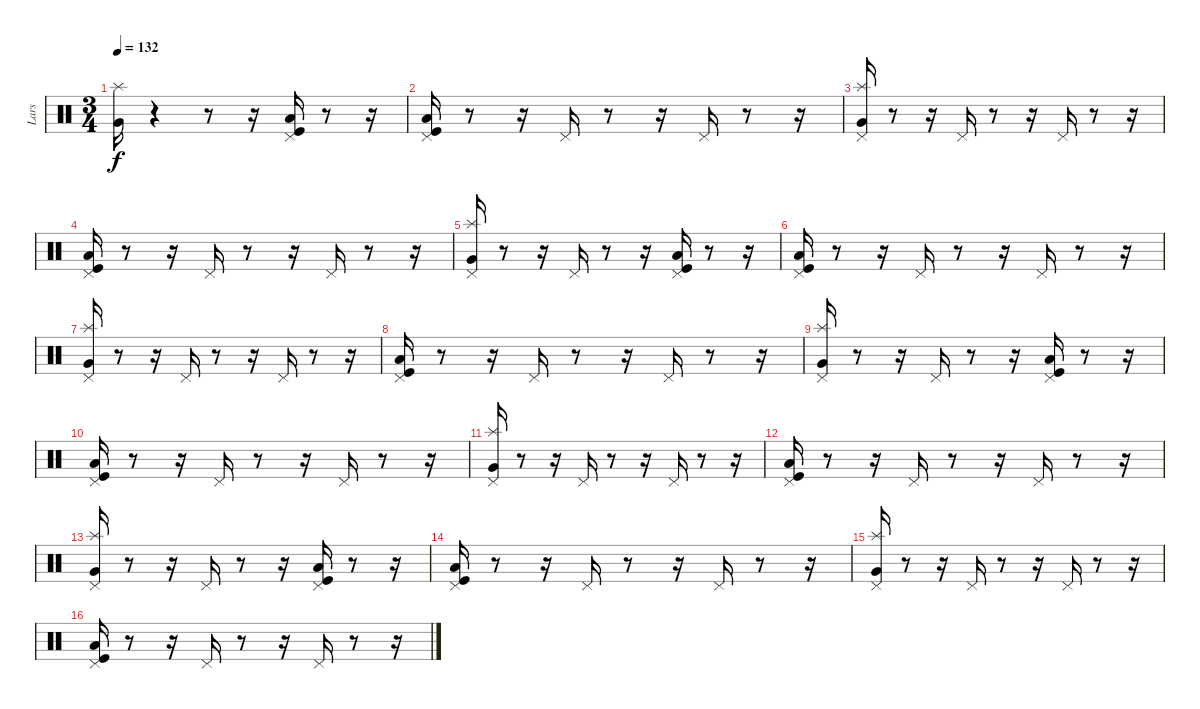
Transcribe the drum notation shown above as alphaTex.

\track ("Lars" "Lars") {instrument percussion}
\staff {score}
\articulation defaults
\ts (3 4)
\tempo 132
\clef neutral
\ks c
("Very Low Tom (hit)" "Splash (hit)").16{dy f} r.4 r.8 r.16 ("Low Floor Tom (hit)" "Pedal Hi-Hat (hit)" "Kick (hit)").16 r.8 r.16 |
("Low Floor Tom (hit)" "Pedal Hi-Hat (hit)" "Kick (hit)").16 r.8 r.16 "Pedal Hi-Hat (hit)".16 r.8 r.16 "Pedal Hi-Hat (hit)".16 r.8 r.16 |
("Pedal Hi-Hat (hit)" "Very Low Tom (hit)" "Splash (hit)").16 r.8 r.16 "Pedal Hi-Hat (hit)".16 r.8 r.16 "Pedal Hi-Hat (hit)".16 r.8 r.16 |
("Low Floor Tom (hit)" "Pedal Hi-Hat (hit)" "Kick (hit)").16 r.8 r.16 "Pedal Hi-Hat (hit)".16 r.8 r.16 "Pedal Hi-Hat (hit)".16 r.8 r.16 |
("Pedal Hi-Hat (hit)" "Very Low Tom (hit)" "Splash (hit)").16 r.8 r.16 "Pedal Hi-Hat (hit)".16 r.8 r.16 ("Pedal Hi-Hat (hit)" "Low Floor Tom (hit)" "Kick (hit)").16 r.8 r.16 |
("Low Floor Tom (hit)" "Pedal Hi-Hat (hit)" "Kick (hit)").16 r.8 r.16 "Pedal Hi-Hat (hit)".16 r.8 r.16 "Pedal Hi-Hat (hit)".16 r.8 r.16 |
("Pedal Hi-Hat (hit)" "Very Low Tom (hit)" "Splash (hit)").16 r.8 r.16 "Pedal Hi-Hat (hit)".16 r.8 r.16 "Pedal Hi-Hat (hit)".16 r.8 r.16 |
("Low Floor Tom (hit)" "Pedal Hi-Hat (hit)" "Kick (hit)").16 r.8 r.16 "Pedal Hi-Hat (hit)".16 r.8 r.16 "Pedal Hi-Hat (hit)".16 r.8 r.16 |
("Pedal Hi-Hat (hit)" "Very Low Tom (hit)" "Splash (hit)").16 r.8 r.16 "Pedal Hi-Hat (hit)".16 r.8 r.16 ("Pedal Hi-Hat (hit)" "Low Floor Tom (hit)" "Kick (hit)").16 r.8 r.16 |
("Low Floor Tom (hit)" "Pedal Hi-Hat (hit)" "Kick (hit)").16 r.8 r.16 "Pedal Hi-Hat (hit)".16 r.8 r.16 "Pedal Hi-Hat (hit)".16 r.8 r.16 |
("Pedal Hi-Hat (hit)" "Very Low Tom (hit)" "Splash (hit)").16 r.8 r.16 "Pedal Hi-Hat (hit)".16 r.8 r.16 "Pedal Hi-Hat (hit)".16 r.8 r.16 |
("Low Floor Tom (hit)" "Pedal Hi-Hat (hit)" "Kick (hit)").16 r.8 r.16 "Pedal Hi-Hat (hit)".16 r.8 r.16 "Pedal Hi-Hat (hit)".16 r.8 r.16 |
("Pedal Hi-Hat (hit)" "Very Low Tom (hit)" "Splash (hit)").16 r.8 r.16 "Pedal Hi-Hat (hit)".16 r.8 r.16 ("Pedal Hi-Hat (hit)" "Low Floor Tom (hit)" "Kick (hit)").16 r.8 r.16 |
("Low Floor Tom (hit)" "Pedal Hi-Hat (hit)" "Kick (hit)").16 r.8 r.16 "Pedal Hi-Hat (hit)".16 r.8 r.16 "Pedal Hi-Hat (hit)".16 r.8 r.16 |
("Pedal Hi-Hat (hit)" "Very Low Tom (hit)" "Splash (hit)").16 r.8 r.16 "Pedal Hi-Hat (hit)".16 r.8 r.16 "Pedal Hi-Hat (hit)".16 r.8 r.16 |
("Low Floor Tom (hit)" "Pedal Hi-Hat (hit)" "Kick (hit)").16 r.8 r.16 "Pedal Hi-Hat (hit)".16 r.8 r.16 "Pedal Hi-Hat (hit)".16 r.8 r.16
